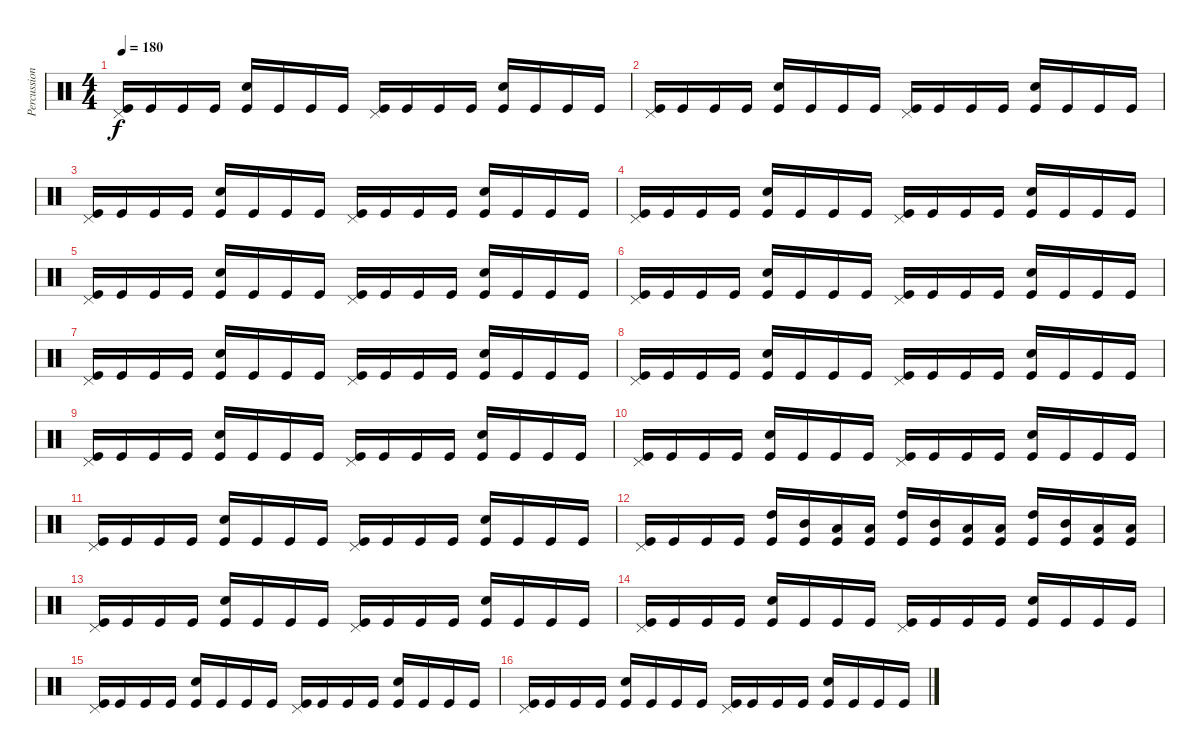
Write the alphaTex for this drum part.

\track ("Percussion" "Percussion") {instrument percussion}
\staff {score}
\articulation defaults
\ts (4 4)
\tempo 180
\clef neutral
\ks c
("Pedal Hi-Hat (hit)" "Kick (hit)").16{dy f} "Kick (hit)".16 "Kick (hit)".16 "Kick (hit)".16 ("Electric Snare (hit)" "Kick (hit)").16 "Kick (hit)".16 "Kick (hit)".16 "Kick (hit)".16 ("Pedal Hi-Hat (hit)" "Kick (hit)").16 "Kick (hit)".16 "Kick (hit)".16 "Kick (hit)".16 ("Electric Snare (hit)" "Kick (hit)").16 "Kick (hit)".16 "Kick (hit)".16 "Kick (hit)".16 |
("Pedal Hi-Hat (hit)" "Kick (hit)").16 "Kick (hit)".16 "Kick (hit)".16 "Kick (hit)".16 ("Electric Snare (hit)" "Kick (hit)").16 "Kick (hit)".16 "Kick (hit)".16 "Kick (hit)".16 ("Pedal Hi-Hat (hit)" "Kick (hit)").16 "Kick (hit)".16 "Kick (hit)".16 "Kick (hit)".16 ("Electric Snare (hit)" "Kick (hit)").16 "Kick (hit)".16 "Kick (hit)".16 "Kick (hit)".16 |
("Pedal Hi-Hat (hit)" "Kick (hit)").16 "Kick (hit)".16 "Kick (hit)".16 "Kick (hit)".16 ("Electric Snare (hit)" "Kick (hit)").16 "Kick (hit)".16 "Kick (hit)".16 "Kick (hit)".16 ("Pedal Hi-Hat (hit)" "Kick (hit)").16 "Kick (hit)".16 "Kick (hit)".16 "Kick (hit)".16 ("Electric Snare (hit)" "Kick (hit)").16 "Kick (hit)".16 "Kick (hit)".16 "Kick (hit)".16 |
("Pedal Hi-Hat (hit)" "Kick (hit)").16 "Kick (hit)".16 "Kick (hit)".16 "Kick (hit)".16 ("Electric Snare (hit)" "Kick (hit)").16 "Kick (hit)".16 "Kick (hit)".16 "Kick (hit)".16 ("Pedal Hi-Hat (hit)" "Kick (hit)").16 "Kick (hit)".16 "Kick (hit)".16 "Kick (hit)".16 ("Electric Snare (hit)" "Kick (hit)").16 "Kick (hit)".16 "Kick (hit)".16 "Kick (hit)".16 |
("Pedal Hi-Hat (hit)" "Kick (hit)").16 "Kick (hit)".16 "Kick (hit)".16 "Kick (hit)".16 ("Electric Snare (hit)" "Kick (hit)").16 "Kick (hit)".16 "Kick (hit)".16 "Kick (hit)".16 ("Pedal Hi-Hat (hit)" "Kick (hit)").16 "Kick (hit)".16 "Kick (hit)".16 "Kick (hit)".16 ("Electric Snare (hit)" "Kick (hit)").16 "Kick (hit)".16 "Kick (hit)".16 "Kick (hit)".16 |
("Pedal Hi-Hat (hit)" "Kick (hit)").16 "Kick (hit)".16 "Kick (hit)".16 "Kick (hit)".16 ("Electric Snare (hit)" "Kick (hit)").16 "Kick (hit)".16 "Kick (hit)".16 "Kick (hit)".16 ("Pedal Hi-Hat (hit)" "Kick (hit)").16 "Kick (hit)".16 "Kick (hit)".16 "Kick (hit)".16 ("Electric Snare (hit)" "Kick (hit)").16 "Kick (hit)".16 "Kick (hit)".16 "Kick (hit)".16 |
("Pedal Hi-Hat (hit)" "Kick (hit)").16 "Kick (hit)".16 "Kick (hit)".16 "Kick (hit)".16 ("Electric Snare (hit)" "Kick (hit)").16 "Kick (hit)".16 "Kick (hit)".16 "Kick (hit)".16 ("Pedal Hi-Hat (hit)" "Kick (hit)").16 "Kick (hit)".16 "Kick (hit)".16 "Kick (hit)".16 ("Electric Snare (hit)" "Kick (hit)").16 "Kick (hit)".16 "Kick (hit)".16 "Kick (hit)".16 |
("Pedal Hi-Hat (hit)" "Kick (hit)").16 "Kick (hit)".16 "Kick (hit)".16 "Kick (hit)".16 ("Electric Snare (hit)" "Kick (hit)").16 "Kick (hit)".16 "Kick (hit)".16 "Kick (hit)".16 ("Pedal Hi-Hat (hit)" "Kick (hit)").16 "Kick (hit)".16 "Kick (hit)".16 "Kick (hit)".16 ("Electric Snare (hit)" "Kick (hit)").16 "Kick (hit)".16 "Kick (hit)".16 "Kick (hit)".16 |
("Pedal Hi-Hat (hit)" "Kick (hit)").16 "Kick (hit)".16 "Kick (hit)".16 "Kick (hit)".16 ("Electric Snare (hit)" "Kick (hit)").16 "Kick (hit)".16 "Kick (hit)".16 "Kick (hit)".16 ("Pedal Hi-Hat (hit)" "Kick (hit)").16 "Kick (hit)".16 "Kick (hit)".16 "Kick (hit)".16 ("Electric Snare (hit)" "Kick (hit)").16 "Kick (hit)".16 "Kick (hit)".16 "Kick (hit)".16 |
("Pedal Hi-Hat (hit)" "Kick (hit)").16 "Kick (hit)".16 "Kick (hit)".16 "Kick (hit)".16 ("Electric Snare (hit)" "Kick (hit)").16 "Kick (hit)".16 "Kick (hit)".16 "Kick (hit)".16 ("Pedal Hi-Hat (hit)" "Kick (hit)").16 "Kick (hit)".16 "Kick (hit)".16 "Kick (hit)".16 ("Electric Snare (hit)" "Kick (hit)").16 "Kick (hit)".16 "Kick (hit)".16 "Kick (hit)".16 |
("Pedal Hi-Hat (hit)" "Kick (hit)").16 "Kick (hit)".16 "Kick (hit)".16 "Kick (hit)".16 ("Electric Snare (hit)" "Kick (hit)").16 "Kick (hit)".16 "Kick (hit)".16 "Kick (hit)".16 ("Pedal Hi-Hat (hit)" "Kick (hit)").16 "Kick (hit)".16 "Kick (hit)".16 "Kick (hit)".16 ("Electric Snare (hit)" "Kick (hit)").16 "Kick (hit)".16 "Kick (hit)".16 "Kick (hit)".16 |
("Pedal Hi-Hat (hit)" "Kick (hit)").16 "Kick (hit)".16 "Kick (hit)".16 "Kick (hit)".16 ("High Tom (hit)" "Kick (hit)").16 ("Mid Tom (hit)" "Kick (hit)").16 ("Low Tom (hit)" "Kick (hit)").16 ("Low Floor Tom (hit)" "Kick (hit)").16 ("High Tom (hit)" "Kick (hit)").16 ("Mid Tom (hit)" "Kick (hit)").16 ("Low Tom (hit)" "Kick (hit)").16 ("Low Floor Tom (hit)" "Kick (hit)").16 ("High Tom (hit)" "Kick (hit)").16 ("Mid Tom (hit)" "Kick (hit)").16 ("Low Tom (hit)" "Kick (hit)").16 ("Low Floor Tom (hit)" "Kick (hit)").16 |
("Pedal Hi-Hat (hit)" "Kick (hit)").16 "Kick (hit)".16 "Kick (hit)".16 "Kick (hit)".16 ("Electric Snare (hit)" "Kick (hit)").16 "Kick (hit)".16 "Kick (hit)".16 "Kick (hit)".16 ("Pedal Hi-Hat (hit)" "Kick (hit)").16 "Kick (hit)".16 "Kick (hit)".16 "Kick (hit)".16 ("Electric Snare (hit)" "Kick (hit)").16 "Kick (hit)".16 "Kick (hit)".16 "Kick (hit)".16 |
("Pedal Hi-Hat (hit)" "Kick (hit)").16 "Kick (hit)".16 "Kick (hit)".16 "Kick (hit)".16 ("Electric Snare (hit)" "Kick (hit)").16 "Kick (hit)".16 "Kick (hit)".16 "Kick (hit)".16 ("Pedal Hi-Hat (hit)" "Kick (hit)").16 "Kick (hit)".16 "Kick (hit)".16 "Kick (hit)".16 ("Electric Snare (hit)" "Kick (hit)").16 "Kick (hit)".16 "Kick (hit)".16 "Kick (hit)".16 |
("Pedal Hi-Hat (hit)" "Kick (hit)").16 "Kick (hit)".16 "Kick (hit)".16 "Kick (hit)".16 ("Electric Snare (hit)" "Kick (hit)").16 "Kick (hit)".16 "Kick (hit)".16 "Kick (hit)".16 ("Pedal Hi-Hat (hit)" "Kick (hit)").16 "Kick (hit)".16 "Kick (hit)".16 "Kick (hit)".16 ("Electric Snare (hit)" "Kick (hit)").16 "Kick (hit)".16 "Kick (hit)".16 "Kick (hit)".16 |
("Pedal Hi-Hat (hit)" "Kick (hit)").16 "Kick (hit)".16 "Kick (hit)".16 "Kick (hit)".16 ("Electric Snare (hit)" "Kick (hit)").16 "Kick (hit)".16 "Kick (hit)".16 "Kick (hit)".16 ("Pedal Hi-Hat (hit)" "Kick (hit)").16 "Kick (hit)".16 "Kick (hit)".16 "Kick (hit)".16 ("Electric Snare (hit)" "Kick (hit)").16 "Kick (hit)".16 "Kick (hit)".16 "Kick (hit)".16
